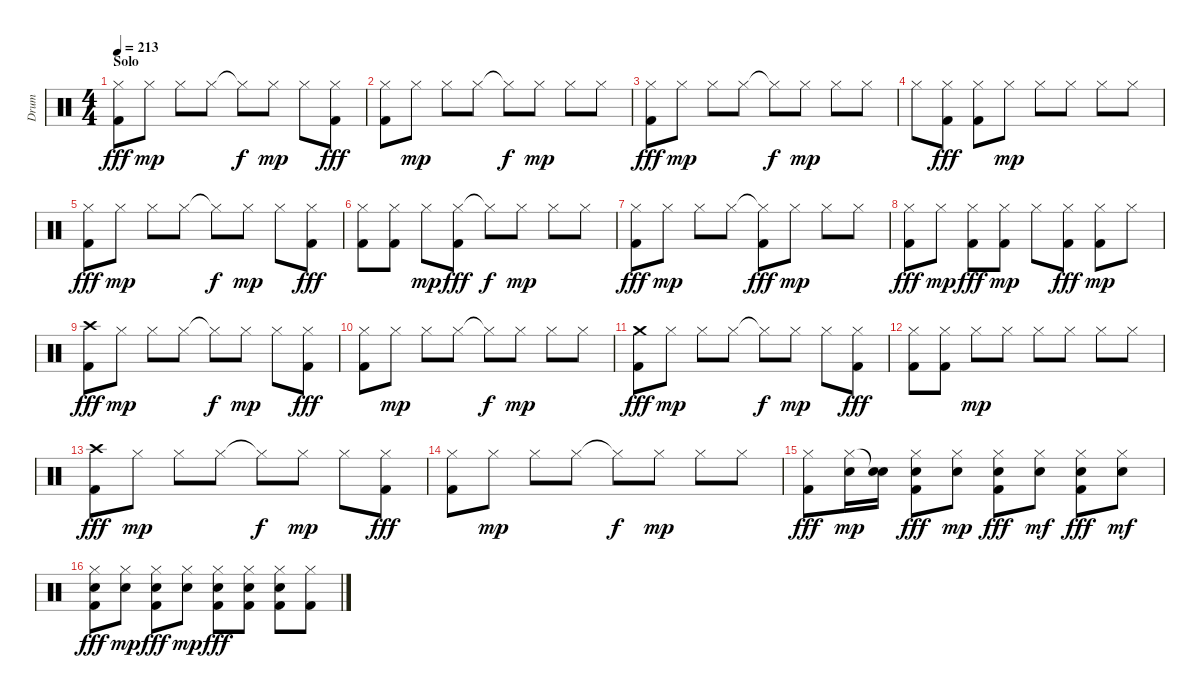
\track ("Drum" "Drum") {instrument percussion}
\staff {score}
\articulation defaults
\ts (4 4)
\section ("" "Solo")
\tempo 213
\clef neutral
\ks c
("Hi-Hat (closed)" "Kick (hit) 2").8{dy fff} "Hi-Hat (closed)".8{dy mp} "Hi-Hat (closed)".8 "Hi-Hat (closed)".8 "Hi-Hat (closed)"{t}.8{dy f} "Hi-Hat (closed)".8{dy mp} "Hi-Hat (closed)".8 ("Hi-Hat (closed)" "Kick (hit) 2").8{dy fff} |
("Hi-Hat (closed)" "Kick (hit) 2").8 "Hi-Hat (closed)".8{dy mp} "Hi-Hat (closed)".8 "Hi-Hat (closed)".8 "Hi-Hat (closed)"{t}.8{dy f} "Hi-Hat (closed)".8{dy mp} "Hi-Hat (closed)".8 "Hi-Hat (closed)".8 |
("Hi-Hat (closed)" "Kick (hit) 2").8{dy fff} "Hi-Hat (closed)".8{dy mp} "Hi-Hat (closed)".8 "Hi-Hat (closed)".8 "Hi-Hat (closed)"{t}.8{dy f} "Hi-Hat (closed)".8{dy mp} "Hi-Hat (closed)".8 "Hi-Hat (closed)".8 |
"Hi-Hat (closed)".8 ("Hi-Hat (closed)" "Kick (hit) 2").8{dy fff} ("Hi-Hat (closed)" "Kick (hit) 2").8 "Hi-Hat (closed)".8{dy mp} "Hi-Hat (closed)".8 "Hi-Hat (closed)".8 "Hi-Hat (closed)".8 "Hi-Hat (closed)".8 |
("Hi-Hat (closed)" "Kick (hit) 2").8{dy fff} "Hi-Hat (closed)".8{dy mp} "Hi-Hat (closed)".8 "Hi-Hat (closed)".8 "Hi-Hat (closed)"{t}.8{dy f} "Hi-Hat (closed)".8{dy mp} "Hi-Hat (closed)".8 ("Hi-Hat (closed)" "Kick (hit) 2").8{dy fff} |
("Hi-Hat (closed)" "Kick (hit) 2").8 ("Hi-Hat (closed)" "Kick (hit) 2").8 "Hi-Hat (closed)".8{dy mp} ("Hi-Hat (closed)" "Kick (hit) 2").8{dy fff} "Hi-Hat (closed)"{t}.8{dy f} "Hi-Hat (closed)".8{dy mp} "Hi-Hat (closed)".8 "Hi-Hat (closed)".8 |
("Hi-Hat (closed)" "Kick (hit) 2").8{dy fff} "Hi-Hat (closed)".8{dy mp} "Hi-Hat (closed)".8 "Hi-Hat (closed)".8 ("Hi-Hat (closed)"{t} "Kick (hit) 2").8{dy fff} "Hi-Hat (closed)".8{dy mp} "Hi-Hat (closed)".8 "Hi-Hat (closed)".8 |
("Hi-Hat (closed)" "Kick (hit) 2").8{dy fff} "Hi-Hat (closed)".8{dy mp} ("Hi-Hat (closed)" "Kick (hit) 2").8{dy fff} ("Hi-Hat (closed)" "Kick (hit) 2").8{dy mp} "Hi-Hat (closed)".8 ("Hi-Hat (closed)" "Kick (hit) 2").8{dy fff} ("Hi-Hat (closed)" "Kick (hit) 2").8{dy mp} "Hi-Hat (closed)".8 |
("Crash high (hit)" "Kick (hit) 2").8{dy fff} "Hi-Hat (closed)".8{dy mp} "Hi-Hat (closed)".8 "Hi-Hat (closed)".8 "Hi-Hat (closed)"{t}.8{dy f} "Hi-Hat (closed)".8{dy mp} "Hi-Hat (closed)".8 ("Hi-Hat (closed)" "Kick (hit) 2").8{dy fff} |
("Hi-Hat (closed)" "Kick (hit) 2").8 "Hi-Hat (closed)".8{dy mp} "Hi-Hat (closed)".8 "Hi-Hat (closed)".8 "Hi-Hat (closed)"{t}.8{dy f} "Hi-Hat (closed)".8{dy mp} "Hi-Hat (closed)".8 "Hi-Hat (closed)".8 |
("Crash medium (hit)" "Kick (hit) 2").8{dy fff} "Hi-Hat (closed)".8{dy mp} "Hi-Hat (closed)".8 "Hi-Hat (closed)".8 "Hi-Hat (closed)"{t}.8{dy f} "Hi-Hat (closed)".8{dy mp} "Hi-Hat (closed)".8 ("Hi-Hat (closed)" "Kick (hit) 2").8{dy fff} |
("Hi-Hat (closed)" "Kick (hit) 2").8 ("Hi-Hat (closed)" "Kick (hit) 2").8 "Hi-Hat (closed)".8{dy mp} "Hi-Hat (closed)".8 "Hi-Hat (closed)".8 "Hi-Hat (closed)".8 "Hi-Hat (closed)".8 "Hi-Hat (closed)".8 |
("Crash high (hit)" "Kick (hit) 2").8{dy fff} "Hi-Hat (closed)".8{dy mp} "Hi-Hat (closed)".8 "Hi-Hat (closed)".8 "Hi-Hat (closed)"{t}.8{dy f} "Hi-Hat (closed)".8{dy mp} "Hi-Hat (closed)".8 ("Hi-Hat (closed)" "Kick (hit) 2").8{dy fff} |
("Hi-Hat (closed)" "Kick (hit) 2").8 "Hi-Hat (closed)".8{dy mp} "Hi-Hat (closed)".8 "Hi-Hat (closed)".8 "Hi-Hat (closed)"{t}.8{dy f} "Hi-Hat (closed)".8{dy mp} "Hi-Hat (closed)".8 "Hi-Hat (closed)".8 |
("Hi-Hat (closed)" "Kick (hit) 2").8{dy fff} ("Hi-Hat (closed)" "Snare (hit) 2").16{dy mp} ("Snare (hit)"{t} "Snare (hit) 2").16 ("Hi-Hat (closed)" "Snare (hit) 2" "Kick (hit) 2").8{dy fff} ("Hi-Hat (closed)" "Snare (hit) 2").8{dy mp} ("Hi-Hat (closed)" "Snare (hit) 2" "Kick (hit) 2").8{dy fff} ("Hi-Hat (closed)" "Snare (hit) 2").8{dy mf} ("Hi-Hat (closed)" "Snare (hit) 2" "Kick (hit) 2").8{dy fff} ("Hi-Hat (closed)" "Snare (hit) 2").8{dy mf} |
("Hi-Hat (closed)" "Snare (hit) 2" "Kick (hit) 2").8{dy fff} ("Hi-Hat (closed)" "Snare (hit) 2").8{dy mp} ("Hi-Hat (closed)" "Snare (hit) 2" "Kick (hit) 2").8{dy fff} ("Hi-Hat (closed)" "Snare (hit) 2").8{dy mp} ("Hi-Hat (closed)" "Snare (hit) 2" "Kick (hit) 2").8{dy fff} ("Hi-Hat (closed)" "Snare (hit) 2" "Kick (hit) 2").8 ("Hi-Hat (closed)" "Snare (hit) 2" "Kick (hit) 2").8 ("Hi-Hat (closed)" "Kick (hit) 2").8
